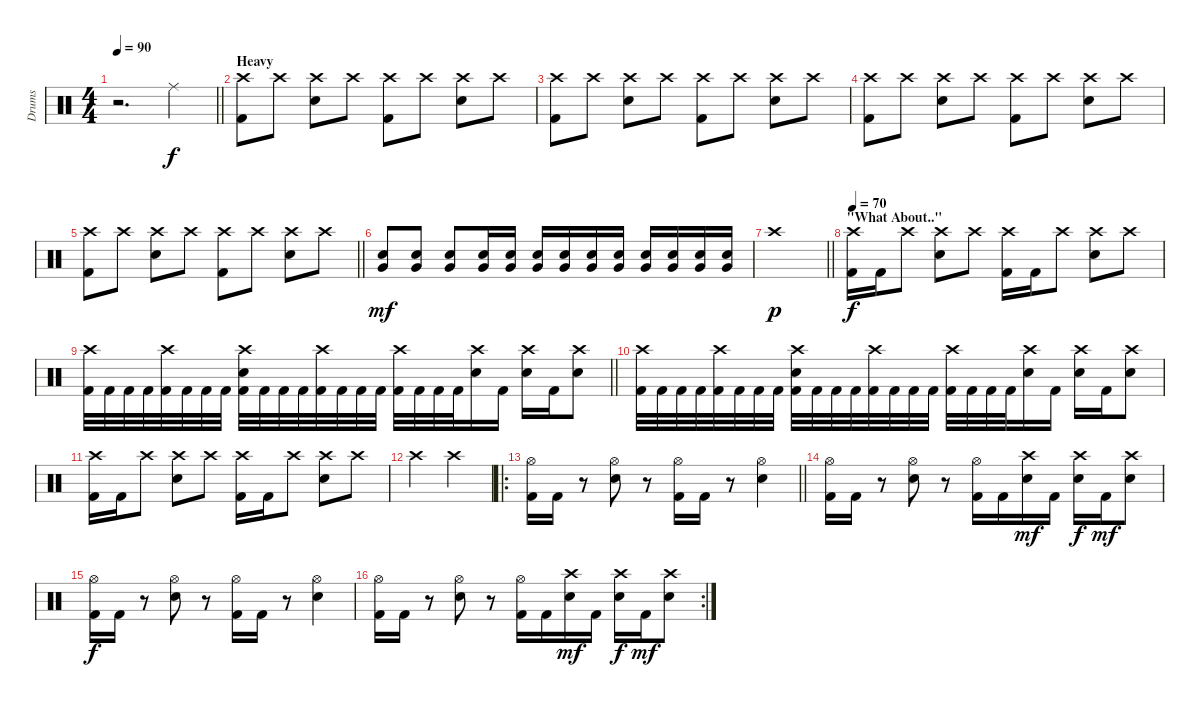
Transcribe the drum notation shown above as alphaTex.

\track ("Drums" "Drums") {instrument percussion}
\staff {score}
\articulation defaults
\ts (4 4)
\tempo 90
\clef neutral
\barLineRight lightlight
\ks c
r.2{d dy f} "Ride (middle)".4 |
\section ("" "Heavy")
("Crash high (hit)" "Kick (hit) 2").8 "Crash high (hit)".8 ("Crash high (hit)" "Electric Snare (hit)").8 "Crash high (hit)".8 ("Crash high (hit)" "Kick (hit) 2").8 "Crash high (hit)".8 ("Crash high (hit)" "Electric Snare (hit)").8 "Crash high (hit)".8 |
("Crash high (hit)" "Kick (hit) 2").8 "Crash high (hit)".8 ("Crash high (hit)" "Electric Snare (hit)").8 "Crash high (hit)".8 ("Crash high (hit)" "Kick (hit) 2").8 "Crash high (hit)".8 ("Crash high (hit)" "Electric Snare (hit)").8 "Crash high (hit)".8 |
("Crash high (hit)" "Kick (hit) 2").8 "Crash high (hit)".8 ("Crash high (hit)" "Electric Snare (hit)").8 "Crash high (hit)".8 ("Crash high (hit)" "Kick (hit) 2").8 "Crash high (hit)".8 ("Crash high (hit)" "Electric Snare (hit)").8 "Crash high (hit)".8 |
\barLineRight lightlight
("Crash high (hit)" "Kick (hit) 2").8 "Crash high (hit)".8 ("Crash high (hit)" "Electric Snare (hit)").8 "Crash high (hit)".8 ("Crash high (hit)" "Kick (hit) 2").8 "Crash high (hit)".8 ("Crash high (hit)" "Electric Snare (hit)").8 "Crash high (hit)".8 |
("Electric Snare (hit)" "Very Low Tom (hit)").8{dy mf} ("Electric Snare (hit)" "Very Low Tom (hit)").8 ("Electric Snare (hit)" "Very Low Tom (hit)").8 ("Electric Snare (hit)" "Very Low Tom (hit)").16 ("Electric Snare (hit)" "Very Low Tom (hit)").16 ("Electric Snare (hit)" "Very Low Tom (hit)").16 ("Electric Snare (hit)" "Very Low Tom (hit)").16 ("Electric Snare (hit)" "Very Low Tom (hit)").16 ("Electric Snare (hit)" "Very Low Tom (hit)").16 ("Electric Snare (hit)" "Very Low Tom (hit)").16 ("Electric Snare (hit)" "Very Low Tom (hit)").16 ("Electric Snare (hit)" "Very Low Tom (hit)").16 ("Electric Snare (hit)" "Very Low Tom (hit)").16 |
\barLineRight lightlight "Crash high (hit)".1{dy p}
|
\section ("" "\"What About..\"")
\tempo 70
("Crash high (hit)" "Kick (hit) 2").16{dy f} "Kick (hit) 2".16 "Crash high (hit)".8 ("Crash high (hit)" "Electric Snare (hit)").8 "Crash high (hit)".8 ("Crash high (hit)" "Kick (hit) 2").16 "Kick (hit) 2".16 "Crash high (hit)".8 ("Crash high (hit)" "Electric Snare (hit)").8 "Crash high (hit)".8 |
\barLineRight lightlight
("Crash high (hit)" "Kick (hit) 2").32 "Kick (hit) 2".32 "Kick (hit) 2".32 "Kick (hit) 2".32 ("Crash high (hit)" "Kick (hit) 2").32 "Kick (hit) 2".32 "Kick (hit) 2".32 "Kick (hit) 2".32 ("Crash high (hit)" "Electric Snare (hit)" "Kick (hit) 2").32 "Kick (hit) 2".32 "Kick (hit) 2".32 "Kick (hit) 2".32 ("Crash high (hit)" "Kick (hit) 2").32 "Kick (hit) 2".32 "Kick (hit) 2".32 "Kick (hit) 2".32 ("Crash high (hit)" "Kick (hit) 2").32 "Kick (hit) 2".32 "Kick (hit) 2".32 "Kick (hit) 2".32 ("Crash high (hit)" "Electric Snare (hit)").16 "Kick (hit) 2".16 ("Crash high (hit)" "Electric Snare (hit)").16 "Kick (hit) 2".16 ("Crash high (hit)" "Electric Snare (hit)").8 |
("Crash high (hit)" "Kick (hit) 2").32 "Kick (hit) 2".32 "Kick (hit) 2".32 "Kick (hit) 2".32 ("Crash high (hit)" "Kick (hit) 2").32 "Kick (hit) 2".32 "Kick (hit) 2".32 "Kick (hit) 2".32 ("Crash high (hit)" "Electric Snare (hit)" "Kick (hit) 2").32 "Kick (hit) 2".32 "Kick (hit) 2".32 "Kick (hit) 2".32 ("Crash high (hit)" "Kick (hit) 2").32 "Kick (hit) 2".32 "Kick (hit) 2".32 "Kick (hit) 2".32 ("Crash high (hit)" "Kick (hit) 2").32 "Kick (hit) 2".32 "Kick (hit) 2".32 "Kick (hit) 2".32 ("Crash high (hit)" "Electric Snare (hit)").16 "Kick (hit) 2".16 ("Crash high (hit)" "Electric Snare (hit)").16 "Kick (hit) 2".16 ("Crash high (hit)" "Electric Snare (hit)").8 |
("Crash high (hit)" "Kick (hit) 2").16 "Kick (hit) 2".16 "Crash high (hit)".8 ("Crash high (hit)" "Electric Snare (hit)").8 "Crash high (hit)".8 ("Crash high (hit)" "Kick (hit) 2").16 "Kick (hit) 2".16 "Crash high (hit)".8 ("Crash high (hit)" "Electric Snare (hit)").8 "Crash high (hit)".8 |
"Crash high (hit)".4 "Crash high (hit)".4 |
\ro
\barLineRight lightlight
("Hi-Hat (open)" "Kick (hit) 2").16 "Kick (hit) 2".16 r.8 ("Hi-Hat (open)" "Electric Snare (hit)").8 r.8 ("Hi-Hat (open)" "Kick (hit) 2").16 "Kick (hit) 2".16 r.8 ("Hi-Hat (open)" "Electric Snare (hit)").4 |
("Hi-Hat (open)" "Kick (hit) 2").16 "Kick (hit) 2".16 r.8 ("Hi-Hat (open)" "Electric Snare (hit)").8 r.8 ("Hi-Hat (open)" "Kick (hit) 2").16 "Kick (hit) 2".16 ("Crash high (hit)" "Electric Snare (hit)").16{dy mf} "Kick (hit) 2".16 ("Crash high (hit)" "Electric Snare (hit)").16{dy f} "Kick (hit) 2".16{dy mf} ("Crash high (hit)" "Electric Snare (hit)").8 |
("Hi-Hat (open)" "Kick (hit) 2").16{dy f} "Kick (hit) 2".16 r.8 ("Hi-Hat (open)" "Electric Snare (hit)").8 r.8 ("Hi-Hat (open)" "Kick (hit) 2").16 "Kick (hit) 2".16 r.8 ("Hi-Hat (open)" "Electric Snare (hit)").4 |
\rc 2
("Hi-Hat (open)" "Kick (hit) 2").16 "Kick (hit) 2".16 r.8 ("Hi-Hat (open)" "Electric Snare (hit)").8 r.8 ("Hi-Hat (open)" "Kick (hit) 2").16 "Kick (hit) 2".16 ("Crash high (hit)" "Electric Snare (hit)").16{dy mf} "Kick (hit) 2".16 ("Crash high (hit)" "Electric Snare (hit)").16{dy f} "Kick (hit) 2".16{dy mf} ("Crash high (hit)" "Electric Snare (hit)").8
